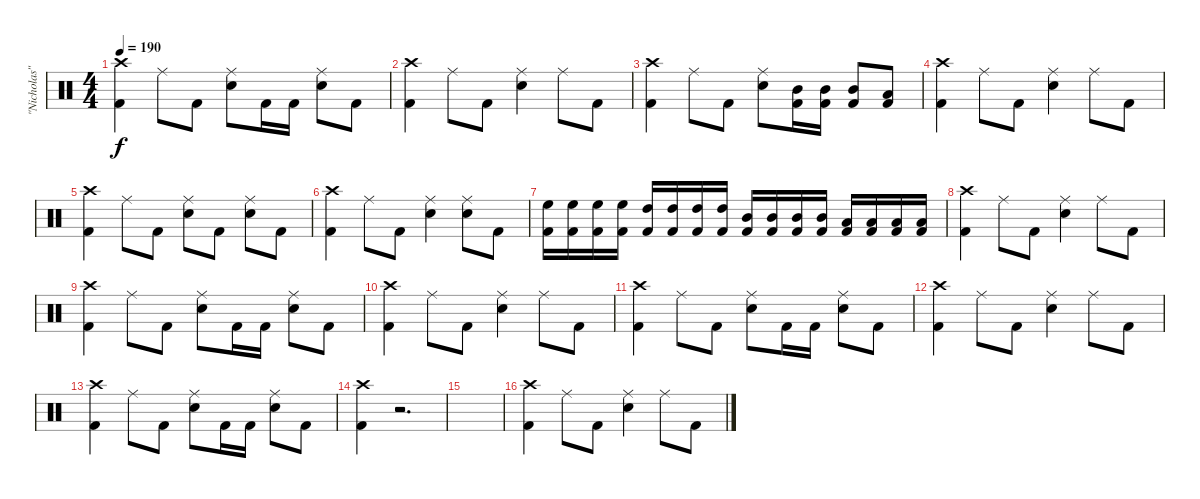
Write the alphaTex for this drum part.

\track ("\"Nicholas\"" "\"Nicholas\"") {instrument percussion}
\staff {score}
\articulation defaults
\ts (4 4)
\tempo 190
\clef neutral
\ks c
("Kick (hit) 2" "Crash high (hit)").4{dy f} "Ride (middle)".8 "Kick (hit) 2".8 ("Snare (hit) 2" "Ride (middle)").8 "Kick (hit) 2".16 "Kick (hit) 2".16 ("Snare (hit) 2" "Ride (middle)").8 "Kick (hit) 2".8 |
("Kick (hit) 2" "Crash high (hit)").4 "Ride (middle)".8 "Kick (hit) 2".8 ("Snare (hit) 2" "Ride (middle)").4 "Ride (middle)".8 "Kick (hit) 2".8 |
("Kick (hit) 2" "Crash high (hit)").4 "Ride (middle)".8 "Kick (hit) 2".8 ("Snare (hit) 2" "Ride (middle)").8 ("Kick (hit) 2" "Mid Tom (hit)").16 ("Kick (hit) 2" "Mid Tom (hit)").16 ("Kick (hit) 2" "Mid Tom (hit)").8 ("Kick (hit) 2" "Low Tom (hit)").8 |
("Kick (hit) 2" "Crash high (hit)").4 "Ride (middle)".8 "Kick (hit) 2".8 ("Snare (hit) 2" "Ride (middle)").4 "Ride (middle)".8 "Kick (hit) 2".8 |
("Kick (hit) 2" "Crash high (hit)").4 "Ride (middle)".8 "Kick (hit) 2".8 ("Snare (hit) 2" "Ride (middle)").8 "Kick (hit) 2".8 ("Snare (hit) 2" "Ride (middle)").8 "Kick (hit) 2".8 |
("Kick (hit) 2" "Crash high (hit)").4 "Ride (middle)".8 "Kick (hit) 2".8 ("Snare (hit) 2" "Ride (middle)").4 ("Snare (hit) 2" "Ride (middle)").8 "Kick (hit) 2".8 |
("Kick (hit) 2" "High Floor Tom (hit)").16 ("Kick (hit) 2" "High Floor Tom (hit)").16 ("Kick (hit) 2" "High Floor Tom (hit)").16 ("Kick (hit) 2" "High Floor Tom (hit)").16 ("Kick (hit) 2" "High Tom (hit)").16 ("Kick (hit) 2" "High Tom (hit)").16 ("Kick (hit) 2" "High Tom (hit)").16 ("Kick (hit) 2" "High Tom (hit)").16 ("Kick (hit) 2" "Mid Tom (hit)").16 ("Kick (hit) 2" "Mid Tom (hit)").16 ("Kick (hit) 2" "Mid Tom (hit)").16 ("Kick (hit) 2" "Mid Tom (hit)").16 ("Kick (hit) 2" "Low Tom (hit)").16 ("Kick (hit) 2" "Low Tom (hit)").16 ("Kick (hit) 2" "Low Tom (hit)").16 ("Kick (hit) 2" "Low Tom (hit)").16 |
("Kick (hit) 2" "Crash high (hit)").4 "Ride (middle)".8 "Kick (hit) 2".8 ("Snare (hit) 2" "Ride (middle)").4 "Ride (middle)".8 "Kick (hit) 2".8 |
("Kick (hit) 2" "Crash high (hit)").4 "Ride (middle)".8 "Kick (hit) 2".8 ("Snare (hit) 2" "Ride (middle)").8 "Kick (hit) 2".16 "Kick (hit) 2".16 ("Snare (hit) 2" "Ride (middle)").8 "Kick (hit) 2".8 |
("Kick (hit) 2" "Crash high (hit)").4 "Ride (middle)".8 "Kick (hit) 2".8 ("Snare (hit) 2" "Ride (middle)").4 "Ride (middle)".8 "Kick (hit) 2".8 |
("Kick (hit) 2" "Crash high (hit)").4 "Ride (middle)".8 "Kick (hit) 2".8 ("Snare (hit) 2" "Ride (middle)").8 "Kick (hit) 2".16 "Kick (hit) 2".16 ("Snare (hit) 2" "Ride (middle)").8 "Kick (hit) 2".8 |
("Kick (hit) 2" "Crash high (hit)").4 "Ride (middle)".8 "Kick (hit) 2".8 ("Snare (hit) 2" "Ride (middle)").4 "Ride (middle)".8 "Kick (hit) 2".8 |
("Kick (hit) 2" "Crash high (hit)").4 "Ride (middle)".8 "Kick (hit) 2".8 ("Snare (hit) 2" "Ride (middle)").8 "Kick (hit) 2".16 "Kick (hit) 2".16 ("Snare (hit) 2" "Ride (middle)").8 "Kick (hit) 2".8 |
("Kick (hit) 2" "Crash high (hit)").4 r.2{d} |
|
("Kick (hit) 2" "Crash high (hit)").4 "Ride (middle)".8 "Kick (hit) 2".8 ("Snare (hit) 2" "Ride (middle)").4 "Ride (middle)".8 "Kick (hit) 2".8
